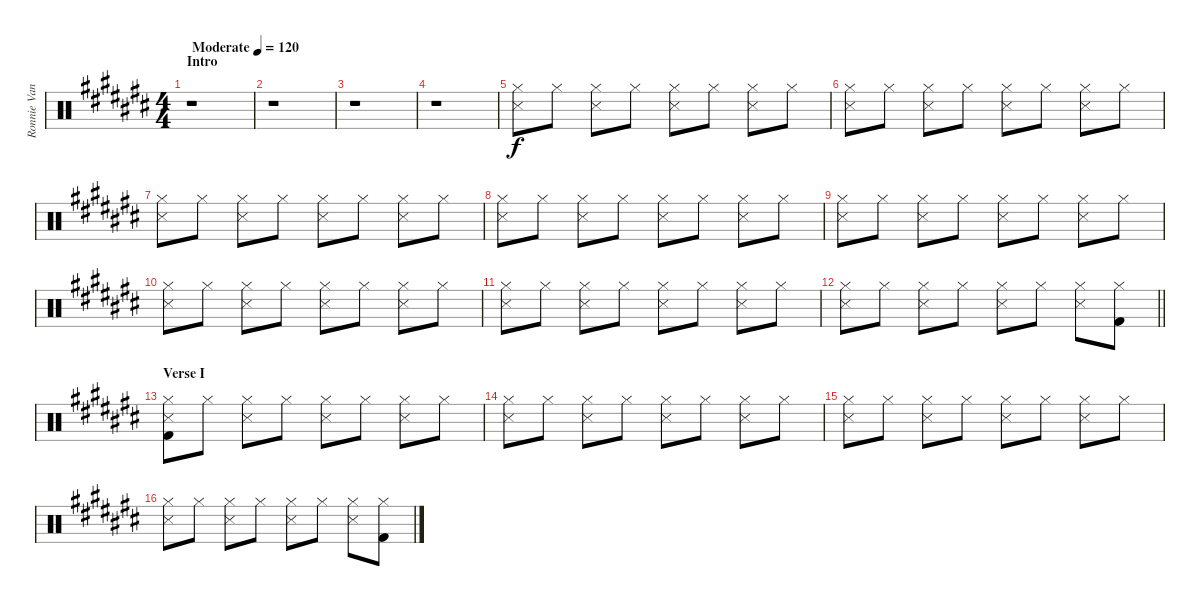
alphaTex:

\track ("Ronnie Vannucci Jr. drums" "Ronnie Van") {instrument percussion}
\staff {score}
\articulation defaults
\ts (4 4)
\section ("" "Intro")
\tempo (120 "Moderate")
\clef neutral
\ks c#
r.1{dy f} |
r.1 |
r.1 |
r.1 |
("Hi-Hat (closed)" "Snare (side stick) 3").8 "Hi-Hat (closed)".8 ("Hi-Hat (closed)" "Snare (side stick) 3").8 "Hi-Hat (closed)".8 ("Hi-Hat (closed)" "Snare (side stick) 3").8 "Hi-Hat (closed)".8 ("Hi-Hat (closed)" "Snare (side stick) 3").8 "Hi-Hat (closed)".8 |
("Hi-Hat (closed)" "Snare (side stick) 3").8 "Hi-Hat (closed)".8 ("Hi-Hat (closed)" "Snare (side stick) 3").8 "Hi-Hat (closed)".8 ("Hi-Hat (closed)" "Snare (side stick) 3").8 "Hi-Hat (closed)".8 ("Hi-Hat (closed)" "Snare (side stick) 3").8 "Hi-Hat (closed)".8 |
("Hi-Hat (closed)" "Snare (side stick) 3").8 "Hi-Hat (closed)".8 ("Hi-Hat (closed)" "Snare (side stick) 3").8 "Hi-Hat (closed)".8 ("Hi-Hat (closed)" "Snare (side stick) 3").8 "Hi-Hat (closed)".8 ("Hi-Hat (closed)" "Snare (side stick) 3").8 "Hi-Hat (closed)".8 |
("Hi-Hat (closed)" "Snare (side stick) 3").8 "Hi-Hat (closed)".8 ("Hi-Hat (closed)" "Snare (side stick) 3").8 "Hi-Hat (closed)".8 ("Hi-Hat (closed)" "Snare (side stick) 3").8 "Hi-Hat (closed)".8 ("Hi-Hat (closed)" "Snare (side stick) 3").8 "Hi-Hat (closed)".8 |
("Hi-Hat (closed)" "Snare (side stick) 3").8 "Hi-Hat (closed)".8 ("Hi-Hat (closed)" "Snare (side stick) 3").8 "Hi-Hat (closed)".8 ("Hi-Hat (closed)" "Snare (side stick) 3").8 "Hi-Hat (closed)".8 ("Hi-Hat (closed)" "Snare (side stick) 3").8 "Hi-Hat (closed)".8 |
("Hi-Hat (closed)" "Snare (side stick) 3").8 "Hi-Hat (closed)".8 ("Hi-Hat (closed)" "Snare (side stick) 3").8 "Hi-Hat (closed)".8 ("Hi-Hat (closed)" "Snare (side stick) 3").8 "Hi-Hat (closed)".8 ("Hi-Hat (closed)" "Snare (side stick) 3").8 "Hi-Hat (closed)".8 |
("Hi-Hat (closed)" "Snare (side stick) 3").8 "Hi-Hat (closed)".8 ("Hi-Hat (closed)" "Snare (side stick) 3").8 "Hi-Hat (closed)".8 ("Hi-Hat (closed)" "Snare (side stick) 3").8 "Hi-Hat (closed)".8 ("Hi-Hat (closed)" "Snare (side stick) 3").8 "Hi-Hat (closed)".8 |
\barLineRight lightlight
("Hi-Hat (closed)" "Snare (side stick) 3").8 "Hi-Hat (closed)".8 ("Hi-Hat (closed)" "Snare (side stick) 3").8 "Hi-Hat (closed)".8 ("Hi-Hat (closed)" "Snare (side stick) 3").8 "Hi-Hat (closed)".8 ("Hi-Hat (closed)" "Snare (side stick) 3").8 ("Hi-Hat (closed)" "Kick (hit) 2").8 |
\section ("" "Verse I")
("Hi-Hat (closed)" "Snare (side stick) 3" "Kick (hit) 2").8 "Hi-Hat (closed)".8 ("Hi-Hat (closed)" "Snare (side stick) 3").8 "Hi-Hat (closed)".8 ("Hi-Hat (closed)" "Snare (side stick) 3").8 "Hi-Hat (closed)".8 ("Hi-Hat (closed)" "Snare (side stick) 3").8 "Hi-Hat (closed)".8 |
("Hi-Hat (closed)" "Snare (side stick) 3").8 "Hi-Hat (closed)".8 ("Hi-Hat (closed)" "Snare (side stick) 3").8 "Hi-Hat (closed)".8 ("Hi-Hat (closed)" "Snare (side stick) 3").8 "Hi-Hat (closed)".8 ("Hi-Hat (closed)" "Snare (side stick) 3").8 "Hi-Hat (closed)".8 |
("Hi-Hat (closed)" "Snare (side stick) 3").8 "Hi-Hat (closed)".8 ("Hi-Hat (closed)" "Snare (side stick) 3").8 "Hi-Hat (closed)".8 ("Hi-Hat (closed)" "Snare (side stick) 3").8 "Hi-Hat (closed)".8 ("Hi-Hat (closed)" "Snare (side stick) 3").8 "Hi-Hat (closed)".8 |
("Hi-Hat (closed)" "Snare (side stick) 3").8 "Hi-Hat (closed)".8 ("Hi-Hat (closed)" "Snare (side stick) 3").8 "Hi-Hat (closed)".8 ("Hi-Hat (closed)" "Snare (side stick) 3").8 "Hi-Hat (closed)".8 ("Hi-Hat (closed)" "Snare (side stick) 3").8 ("Hi-Hat (closed)" "Kick (hit) 2").8
